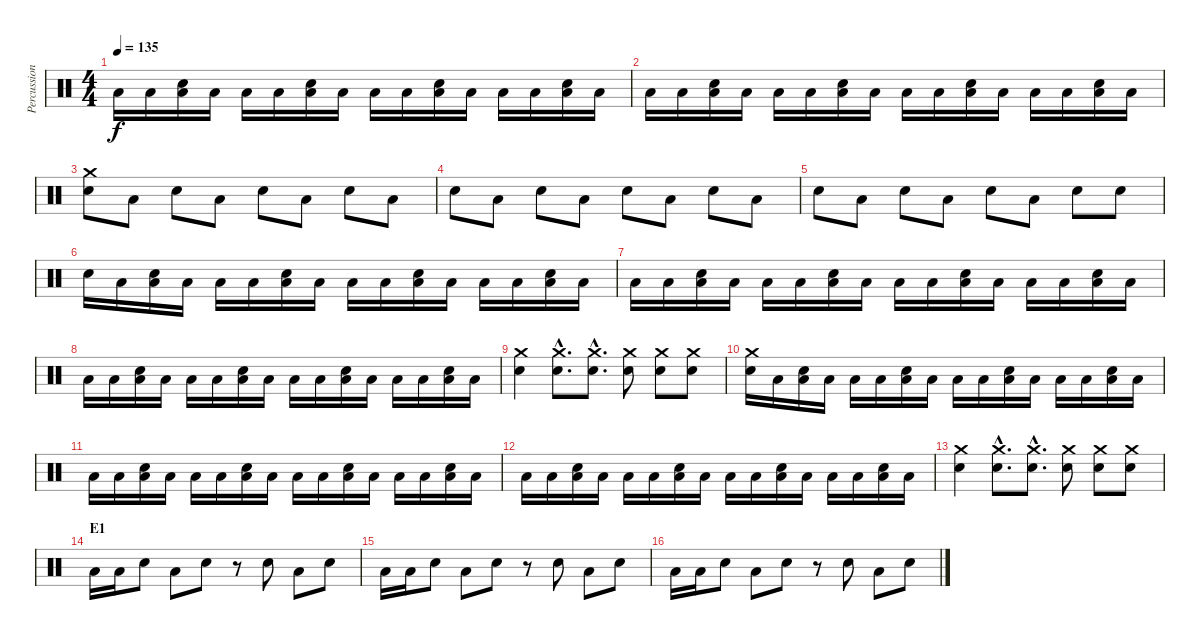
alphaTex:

\track ("Percussion" "Percussion") {instrument percussion}
\staff {score}
\articulation defaults
\ts (4 4)
\tempo 135
\clef neutral
\ks c "Low Floor Tom (hit)".16{dy f} "Low Floor Tom (hit)".16
("Low Floor Tom (hit)" "Electric Snare (hit)").16 "Low Floor Tom (hit)".16 "Low Floor Tom (hit)".16 "Low Floor Tom (hit)".16 ("Low Floor Tom (hit)" "Electric Snare (hit)").16 "Low Floor Tom (hit)".16 "Low Floor Tom (hit)".16 "Low Floor Tom (hit)".16 ("Low Floor Tom (hit)" "Electric Snare (hit)").16 "Low Floor Tom (hit)".16 "Low Floor Tom (hit)".16 "Low Floor Tom (hit)".16 ("Low Floor Tom (hit)" "Electric Snare (hit)").16 "Low Floor Tom (hit)".16 |
"Low Floor Tom (hit)".16 "Low Floor Tom (hit)".16 ("Low Floor Tom (hit)" "Electric Snare (hit)").16 "Low Floor Tom (hit)".16 "Low Floor Tom (hit)".16 "Low Floor Tom (hit)".16 ("Low Floor Tom (hit)" "Electric Snare (hit)").16 "Low Floor Tom (hit)".16 "Low Floor Tom (hit)".16 "Low Floor Tom (hit)".16 ("Low Floor Tom (hit)" "Electric Snare (hit)").16 "Low Floor Tom (hit)".16 "Low Floor Tom (hit)".16 "Low Floor Tom (hit)".16 ("Low Floor Tom (hit)" "Electric Snare (hit)").16 "Low Floor Tom (hit)".16 |
("Electric Snare (hit)" "Crash medium (hit)").8 "Low Floor Tom (hit)".8 "Electric Snare (hit)".8 "Low Floor Tom (hit)".8 "Electric Snare (hit)".8 "Low Floor Tom (hit)".8 "Electric Snare (hit)".8 "Low Floor Tom (hit)".8 |
"Electric Snare (hit)".8 "Low Floor Tom (hit)".8 "Electric Snare (hit)".8 "Low Floor Tom (hit)".8 "Electric Snare (hit)".8 "Low Floor Tom (hit)".8 "Electric Snare (hit)".8 "Low Floor Tom (hit)".8 |
"Electric Snare (hit)".8 "Low Floor Tom (hit)".8 "Electric Snare (hit)".8 "Low Floor Tom (hit)".8 "Electric Snare (hit)".8 "Low Floor Tom (hit)".8 "Electric Snare (hit)".8 "Electric Snare (hit)".8 |
"Electric Snare (hit)".16 "Low Floor Tom (hit)".16 ("Low Floor Tom (hit)" "Electric Snare (hit)").16 "Low Floor Tom (hit)".16 "Low Floor Tom (hit)".16 "Low Floor Tom (hit)".16 ("Low Floor Tom (hit)" "Electric Snare (hit)").16 "Low Floor Tom (hit)".16 "Low Floor Tom (hit)".16 "Low Floor Tom (hit)".16 ("Low Floor Tom (hit)" "Electric Snare (hit)").16 "Low Floor Tom (hit)".16 "Low Floor Tom (hit)".16 "Low Floor Tom (hit)".16 ("Low Floor Tom (hit)" "Electric Snare (hit)").16 "Low Floor Tom (hit)".16 |
"Low Floor Tom (hit)".16 "Low Floor Tom (hit)".16 ("Low Floor Tom (hit)" "Electric Snare (hit)").16 "Low Floor Tom (hit)".16 "Low Floor Tom (hit)".16 "Low Floor Tom (hit)".16 ("Low Floor Tom (hit)" "Electric Snare (hit)").16 "Low Floor Tom (hit)".16 "Low Floor Tom (hit)".16 "Low Floor Tom (hit)".16 ("Low Floor Tom (hit)" "Electric Snare (hit)").16 "Low Floor Tom (hit)".16 "Low Floor Tom (hit)".16 "Low Floor Tom (hit)".16 ("Low Floor Tom (hit)" "Electric Snare (hit)").16 "Low Floor Tom (hit)".16 |
"Low Floor Tom (hit)".16 "Low Floor Tom (hit)".16 ("Low Floor Tom (hit)" "Electric Snare (hit)").16 "Low Floor Tom (hit)".16 "Low Floor Tom (hit)".16 "Low Floor Tom (hit)".16 ("Low Floor Tom (hit)" "Electric Snare (hit)").16 "Low Floor Tom (hit)".16 "Low Floor Tom (hit)".16 "Low Floor Tom (hit)".16 ("Low Floor Tom (hit)" "Electric Snare (hit)").16 "Low Floor Tom (hit)".16 "Low Floor Tom (hit)".16 "Low Floor Tom (hit)".16 ("Low Floor Tom (hit)" "Electric Snare (hit)").16 "Low Floor Tom (hit)".16 |
("Electric Snare (hit)" "Crash medium (hit)").4 ("Electric Snare (hit)"{hac} "Crash medium (hit)"{hac}).8{d} ("Electric Snare (hit)"{hac} "Crash medium (hit)"{hac}).8{d} ("Electric Snare (hit)" "Crash medium (hit)").8 ("Electric Snare (hit)" "Crash medium (hit)").8 ("Electric Snare (hit)" "Crash medium (hit)").8 |
("Electric Snare (hit)" "Crash medium (hit)").16 "Low Floor Tom (hit)".16 ("Low Floor Tom (hit)" "Electric Snare (hit)").16 "Low Floor Tom (hit)".16 "Low Floor Tom (hit)".16 "Low Floor Tom (hit)".16 ("Low Floor Tom (hit)" "Electric Snare (hit)").16 "Low Floor Tom (hit)".16 "Low Floor Tom (hit)".16 "Low Floor Tom (hit)".16 ("Low Floor Tom (hit)" "Electric Snare (hit)").16 "Low Floor Tom (hit)".16 "Low Floor Tom (hit)".16 "Low Floor Tom (hit)".16 ("Low Floor Tom (hit)" "Electric Snare (hit)").16 "Low Floor Tom (hit)".16 |
"Low Floor Tom (hit)".16 "Low Floor Tom (hit)".16 ("Low Floor Tom (hit)" "Electric Snare (hit)").16 "Low Floor Tom (hit)".16 "Low Floor Tom (hit)".16 "Low Floor Tom (hit)".16 ("Low Floor Tom (hit)" "Electric Snare (hit)").16 "Low Floor Tom (hit)".16 "Low Floor Tom (hit)".16 "Low Floor Tom (hit)".16 ("Low Floor Tom (hit)" "Electric Snare (hit)").16 "Low Floor Tom (hit)".16 "Low Floor Tom (hit)".16 "Low Floor Tom (hit)".16 ("Low Floor Tom (hit)" "Electric Snare (hit)").16 "Low Floor Tom (hit)".16 |
"Low Floor Tom (hit)".16 "Low Floor Tom (hit)".16 ("Low Floor Tom (hit)" "Electric Snare (hit)").16 "Low Floor Tom (hit)".16 "Low Floor Tom (hit)".16 "Low Floor Tom (hit)".16 ("Low Floor Tom (hit)" "Electric Snare (hit)").16 "Low Floor Tom (hit)".16 "Low Floor Tom (hit)".16 "Low Floor Tom (hit)".16 ("Low Floor Tom (hit)" "Electric Snare (hit)").16 "Low Floor Tom (hit)".16 "Low Floor Tom (hit)".16 "Low Floor Tom (hit)".16 ("Low Floor Tom (hit)" "Electric Snare (hit)").16 "Low Floor Tom (hit)".16 |
("Electric Snare (hit)" "Crash medium (hit)").4 ("Electric Snare (hit)"{hac} "Crash medium (hit)"{hac}).8{d} ("Electric Snare (hit)"{hac} "Crash medium (hit)"{hac}).8{d} ("Electric Snare (hit)" "Crash medium (hit)").8 ("Electric Snare (hit)" "Crash medium (hit)").8 ("Electric Snare (hit)" "Crash medium (hit)").8 |
\section ("" "E1")
"Low Floor Tom (hit)".16 "Low Floor Tom (hit)".16 "Electric Snare (hit)".8 "Low Floor Tom (hit)".8 "Electric Snare (hit)".8 r.8 "Electric Snare (hit)".8 "Low Floor Tom (hit)".8 "Electric Snare (hit)".8 |
"Low Floor Tom (hit)".16 "Low Floor Tom (hit)".16 "Electric Snare (hit)".8 "Low Floor Tom (hit)".8 "Electric Snare (hit)".8 r.8 "Electric Snare (hit)".8 "Low Floor Tom (hit)".8 "Electric Snare (hit)".8 |
"Low Floor Tom (hit)".16 "Low Floor Tom (hit)".16 "Electric Snare (hit)".8 "Low Floor Tom (hit)".8 "Electric Snare (hit)".8 r.8 "Electric Snare (hit)".8 "Low Floor Tom (hit)".8 "Electric Snare (hit)".8
